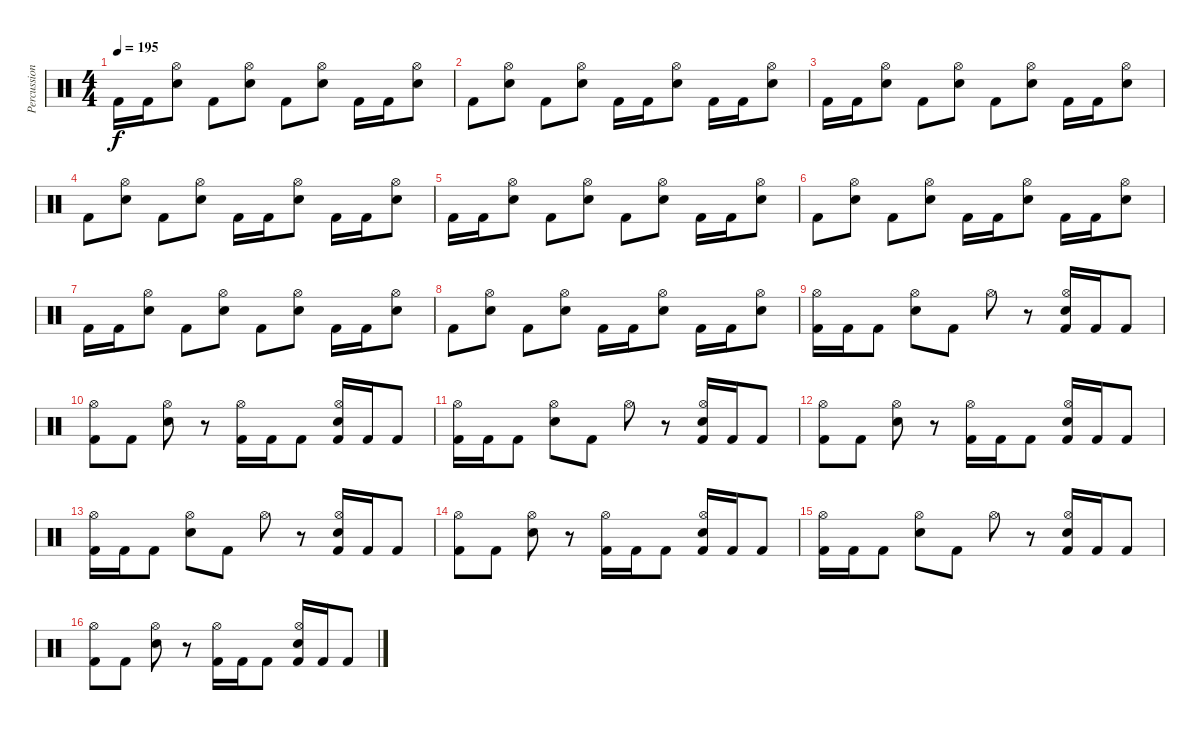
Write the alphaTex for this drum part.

\track ("Percussion" "Percussion") {instrument percussion}
\staff {score}
\articulation defaults
\ts (4 4)
\tempo 195
\clef neutral
\ks c "Kick (hit) 2".16{dy f} "Kick (hit) 2".16
("Hi-Hat (open)" "Electric Snare (hit)").8 "Kick (hit) 2".8 ("Hi-Hat (open)" "Electric Snare (hit)").8 "Kick (hit) 2".8 ("Hi-Hat (open)" "Electric Snare (hit)").8 "Kick (hit) 2".16 "Kick (hit) 2".16 ("Hi-Hat (open)" "Electric Snare (hit)").8 |
"Kick (hit) 2".8 ("Hi-Hat (open)" "Electric Snare (hit)").8 "Kick (hit) 2".8 ("Hi-Hat (open)" "Electric Snare (hit)").8 "Kick (hit) 2".16 "Kick (hit) 2".16 ("Hi-Hat (open)" "Electric Snare (hit)").8 "Kick (hit) 2".16 "Kick (hit) 2".16 ("Hi-Hat (open)" "Electric Snare (hit)").8 |
"Kick (hit) 2".16 "Kick (hit) 2".16 ("Hi-Hat (open)" "Electric Snare (hit)").8 "Kick (hit) 2".8 ("Hi-Hat (open)" "Electric Snare (hit)").8 "Kick (hit) 2".8 ("Hi-Hat (open)" "Electric Snare (hit)").8 "Kick (hit) 2".16 "Kick (hit) 2".16 ("Hi-Hat (open)" "Electric Snare (hit)").8 |
"Kick (hit) 2".8 ("Hi-Hat (open)" "Electric Snare (hit)").8 "Kick (hit) 2".8 ("Hi-Hat (open)" "Electric Snare (hit)").8 "Kick (hit) 2".16 "Kick (hit) 2".16 ("Hi-Hat (open)" "Electric Snare (hit)").8 "Kick (hit) 2".16 "Kick (hit) 2".16 ("Hi-Hat (open)" "Electric Snare (hit)").8 |
"Kick (hit) 2".16 "Kick (hit) 2".16 ("Hi-Hat (open)" "Electric Snare (hit)").8 "Kick (hit) 2".8 ("Hi-Hat (open)" "Electric Snare (hit)").8 "Kick (hit) 2".8 ("Hi-Hat (open)" "Electric Snare (hit)").8 "Kick (hit) 2".16 "Kick (hit) 2".16 ("Hi-Hat (open)" "Electric Snare (hit)").8 |
"Kick (hit) 2".8 ("Hi-Hat (open)" "Electric Snare (hit)").8 "Kick (hit) 2".8 ("Hi-Hat (open)" "Electric Snare (hit)").8 "Kick (hit) 2".16 "Kick (hit) 2".16 ("Hi-Hat (open)" "Electric Snare (hit)").8 "Kick (hit) 2".16 "Kick (hit) 2".16 ("Hi-Hat (open)" "Electric Snare (hit)").8 |
"Kick (hit) 2".16 "Kick (hit) 2".16 ("Hi-Hat (open)" "Electric Snare (hit)").8 "Kick (hit) 2".8 ("Hi-Hat (open)" "Electric Snare (hit)").8 "Kick (hit) 2".8 ("Hi-Hat (open)" "Electric Snare (hit)").8 "Kick (hit) 2".16 "Kick (hit) 2".16 ("Hi-Hat (open)" "Electric Snare (hit)").8 |
"Kick (hit) 2".8 ("Hi-Hat (open)" "Electric Snare (hit)").8 "Kick (hit) 2".8 ("Hi-Hat (open)" "Electric Snare (hit)").8 "Kick (hit) 2".16 "Kick (hit) 2".16 ("Hi-Hat (open)" "Electric Snare (hit)").8 "Kick (hit) 2".16 "Kick (hit) 2".16 ("Hi-Hat (open)" "Electric Snare (hit)").8 |
("Hi-Hat (open)" "Kick (hit) 2").16 "Kick (hit) 2".16 "Kick (hit) 2".8 ("Hi-Hat (open)" "Electric Snare (hit)").8 "Kick (hit) 2".8 "Hi-Hat (open)".8 r.8 ("Hi-Hat (open)" "Electric Snare (hit)" "Kick (hit) 2").16 "Kick (hit) 2".16 "Kick (hit) 2".8 |
("Hi-Hat (open)" "Kick (hit) 2").8 "Kick (hit) 2".8 ("Hi-Hat (open)" "Electric Snare (hit)").8 r.8 ("Hi-Hat (open)" "Kick (hit) 2").16 "Kick (hit) 2".16 "Kick (hit) 2".8 ("Hi-Hat (open)" "Electric Snare (hit)" "Kick (hit) 2").16 "Kick (hit) 2".16 "Kick (hit) 2".8 |
("Hi-Hat (open)" "Kick (hit) 2").16 "Kick (hit) 2".16 "Kick (hit) 2".8 ("Hi-Hat (open)" "Electric Snare (hit)").8 "Kick (hit) 2".8 "Hi-Hat (open)".8 r.8 ("Hi-Hat (open)" "Electric Snare (hit)" "Kick (hit) 2").16 "Kick (hit) 2".16 "Kick (hit) 2".8 |
("Hi-Hat (open)" "Kick (hit) 2").8 "Kick (hit) 2".8 ("Hi-Hat (open)" "Electric Snare (hit)").8 r.8 ("Hi-Hat (open)" "Kick (hit) 2").16 "Kick (hit) 2".16 "Kick (hit) 2".8 ("Hi-Hat (open)" "Electric Snare (hit)" "Kick (hit) 2").16 "Kick (hit) 2".16 "Kick (hit) 2".8 |
("Hi-Hat (open)" "Kick (hit) 2").16 "Kick (hit) 2".16 "Kick (hit) 2".8 ("Hi-Hat (open)" "Electric Snare (hit)").8 "Kick (hit) 2".8 "Hi-Hat (open)".8 r.8 ("Hi-Hat (open)" "Electric Snare (hit)" "Kick (hit) 2").16 "Kick (hit) 2".16 "Kick (hit) 2".8 |
("Hi-Hat (open)" "Kick (hit) 2").8 "Kick (hit) 2".8 ("Hi-Hat (open)" "Electric Snare (hit)").8 r.8 ("Hi-Hat (open)" "Kick (hit) 2").16 "Kick (hit) 2".16 "Kick (hit) 2".8 ("Hi-Hat (open)" "Electric Snare (hit)" "Kick (hit) 2").16 "Kick (hit) 2".16 "Kick (hit) 2".8 |
("Hi-Hat (open)" "Kick (hit) 2").16 "Kick (hit) 2".16 "Kick (hit) 2".8 ("Hi-Hat (open)" "Electric Snare (hit)").8 "Kick (hit) 2".8 "Hi-Hat (open)".8 r.8 ("Hi-Hat (open)" "Electric Snare (hit)" "Kick (hit) 2").16 "Kick (hit) 2".16 "Kick (hit) 2".8 |
("Hi-Hat (open)" "Kick (hit) 2").8 "Kick (hit) 2".8 ("Hi-Hat (open)" "Electric Snare (hit)").8 r.8 ("Hi-Hat (open)" "Kick (hit) 2").16 "Kick (hit) 2".16 "Kick (hit) 2".8 ("Hi-Hat (open)" "Electric Snare (hit)" "Kick (hit) 2").16 "Kick (hit) 2".16 "Kick (hit) 2".8
